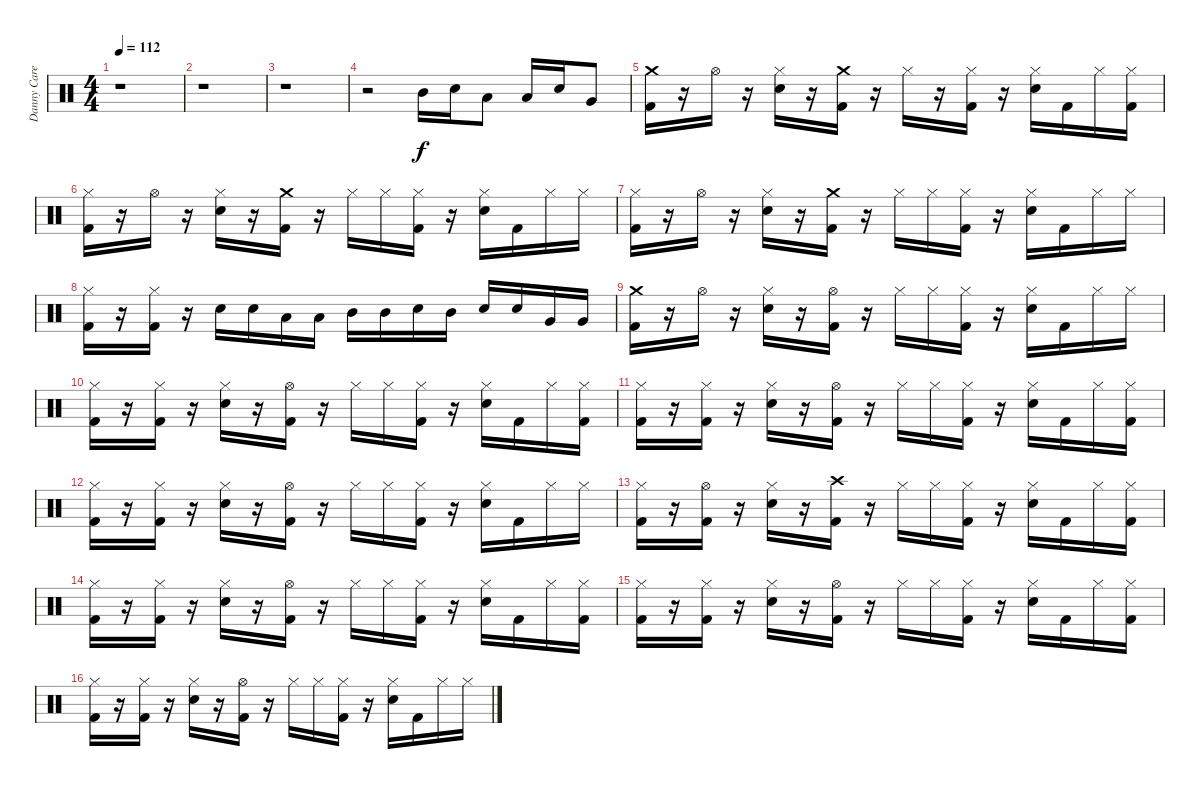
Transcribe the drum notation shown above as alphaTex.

\track ("Danny Carey" "Danny Care") {instrument percussion}
\staff {score}
\articulation defaults
\ts (4 4)
\tempo 112
\clef neutral
\ks c
r.1{dy f} |
r.1 |
r.1 |
r.2 "Mid Tom (hit)".16 "Snare (hit) 2".16 "Low Floor Tom (hit)".8 "Low Floor Tom (hit)".16 "Snare (hit) 2".16 "Very Low Tom (hit)".8 |
("Crash medium (hit)" "Kick (hit) 2").16 r.16 "Hi-Hat (open)".16 r.16 ("Hi-Hat (closed)" "Snare (hit) 2").16 r.16 ("Crash medium (hit)" "Kick (hit) 2").16 r.16 "Hi-Hat (closed)".16 r.16 ("Hi-Hat (closed)" "Kick (hit) 2").16 r.16 ("Hi-Hat (closed)" "Snare (hit) 2").16 "Kick (hit) 2".16 "Hi-Hat (closed)".16 ("Hi-Hat (closed)" "Kick (hit) 2").16 |
("Hi-Hat (closed)" "Kick (hit) 2").16 r.16 "Hi-Hat (open)".16 r.16 ("Hi-Hat (closed)" "Snare (hit) 2").16 r.16 ("Crash medium (hit)" "Kick (hit) 2").16 r.16 "Hi-Hat (closed)".16 "Hi-Hat (closed)".16 ("Hi-Hat (closed)" "Kick (hit) 2").16 r.16 ("Hi-Hat (closed)" "Snare (hit) 2").16 "Kick (hit) 2".16 "Hi-Hat (closed)".16 "Hi-Hat (closed)".16 |
("Hi-Hat (closed)" "Kick (hit) 2").16 r.16 "Hi-Hat (open)".16 r.16 ("Hi-Hat (closed)" "Snare (hit) 2").16 r.16 ("Crash medium (hit)" "Kick (hit) 2").16 r.16 "Hi-Hat (closed)".16 "Hi-Hat (closed)".16 ("Hi-Hat (closed)" "Kick (hit) 2").16 r.16 ("Hi-Hat (closed)" "Snare (hit) 2").16 "Kick (hit) 2".16 "Hi-Hat (closed)".16 "Hi-Hat (closed)".16 |
("Hi-Hat (closed)" "Kick (hit) 2").16 r.16 ("Hi-Hat (closed)" "Kick (hit) 2").16 r.16 "Snare (hit) 2".16 "Snare (hit) 2".16 "Low Tom (hit)".16 "Low Tom (hit)".16 "Mid Tom (hit)".16 "Mid Tom (hit)".16 "Snare (hit) 2".16 "Mid Tom (hit)".16 "Snare (hit) 2".16 "Snare (hit) 2".16 "Very Low Tom (hit)".16 "Very Low Tom (hit)".16 |
("Crash medium (hit)" "Kick (hit) 2").16 r.16 "Hi-Hat (open)".16 r.16 ("Hi-Hat (closed)" "Snare (hit) 2").16 r.16 ("Hi-Hat (open)" "Kick (hit) 2").16 r.16 "Hi-Hat (closed)".16 "Hi-Hat (closed)".16 ("Hi-Hat (closed)" "Kick (hit) 2").16 r.16 ("Hi-Hat (closed)" "Snare (hit) 2").16 "Kick (hit) 2".16 "Hi-Hat (closed)".16 "Hi-Hat (closed)".16 |
("Hi-Hat (closed)" "Kick (hit) 2").16 r.16 ("Hi-Hat (closed)" "Kick (hit) 2").16 r.16 ("Hi-Hat (closed)" "Snare (hit) 2").16 r.16 ("Hi-Hat (open)" "Kick (hit) 2").16 r.16 "Hi-Hat (closed)".16 "Hi-Hat (closed)".16 ("Hi-Hat (closed)" "Kick (hit) 2").16 r.16 ("Hi-Hat (closed)" "Snare (hit) 2").16 "Kick (hit) 2".16 "Hi-Hat (closed)".16 ("Hi-Hat (closed)" "Kick (hit) 2").16 |
("Hi-Hat (closed)" "Kick (hit) 2").16 r.16 ("Hi-Hat (closed)" "Kick (hit) 2").16 r.16 ("Hi-Hat (closed)" "Snare (hit) 2").16 r.16 ("Hi-Hat (open)" "Kick (hit) 2").16 r.16 "Hi-Hat (closed)".16 "Hi-Hat (closed)".16 ("Hi-Hat (closed)" "Kick (hit) 2").16 r.16 ("Hi-Hat (closed)" "Snare (hit) 2").16 "Kick (hit) 2".16 "Hi-Hat (closed)".16 ("Hi-Hat (closed)" "Kick (hit) 2").16 |
("Hi-Hat (closed)" "Kick (hit) 2").16 r.16 ("Hi-Hat (closed)" "Kick (hit) 2").16 r.16 ("Hi-Hat (closed)" "Snare (hit) 2").16 r.16 ("Hi-Hat (open)" "Kick (hit) 2").16 r.16 "Hi-Hat (closed)".16 "Hi-Hat (closed)".16 ("Hi-Hat (closed)" "Kick (hit) 2").16 r.16 ("Hi-Hat (closed)" "Snare (hit) 2").16 "Kick (hit) 2".16 "Hi-Hat (closed)".16 "Hi-Hat (closed)".16 |
("Hi-Hat (closed)" "Kick (hit) 2").16 r.16 ("Hi-Hat (open)" "Kick (hit) 2").16 r.16 ("Hi-Hat (closed)" "Snare (hit) 2").16 r.16 ("Crash high (hit)" "Kick (hit) 2").16 r.16 "Hi-Hat (closed)".16 "Hi-Hat (closed)".16 ("Hi-Hat (closed)" "Kick (hit) 2").16 r.16 ("Hi-Hat (closed)" "Snare (hit) 2").16 "Kick (hit) 2".16 "Hi-Hat (closed)".16 ("Hi-Hat (closed)" "Kick (hit) 2").16 |
("Hi-Hat (closed)" "Kick (hit) 2").16 r.16 ("Hi-Hat (closed)" "Kick (hit) 2").16 r.16 ("Hi-Hat (closed)" "Snare (hit) 2").16 r.16 ("Hi-Hat (open)" "Kick (hit) 2").16 r.16 "Hi-Hat (closed)".16 "Hi-Hat (closed)".16 ("Hi-Hat (closed)" "Kick (hit) 2").16 r.16 ("Hi-Hat (closed)" "Snare (hit) 2").16 "Kick (hit) 2".16 "Hi-Hat (closed)".16 ("Hi-Hat (closed)" "Kick (hit) 2").16 |
("Hi-Hat (closed)" "Kick (hit) 2").16 r.16 ("Hi-Hat (closed)" "Kick (hit) 2").16 r.16 ("Hi-Hat (closed)" "Snare (hit) 2").16 r.16 ("Hi-Hat (open)" "Kick (hit) 2").16 r.16 "Hi-Hat (closed)".16 "Hi-Hat (closed)".16 ("Hi-Hat (closed)" "Kick (hit) 2").16 r.16 ("Hi-Hat (closed)" "Snare (hit) 2").16 "Kick (hit) 2".16 "Hi-Hat (closed)".16 ("Hi-Hat (closed)" "Kick (hit) 2").16 |
("Hi-Hat (closed)" "Kick (hit) 2").16 r.16 ("Hi-Hat (closed)" "Kick (hit) 2").16 r.16 ("Hi-Hat (closed)" "Snare (hit) 2").16 r.16 ("Hi-Hat (open)" "Kick (hit) 2").16 r.16 "Hi-Hat (closed)".16 "Hi-Hat (closed)".16 ("Hi-Hat (closed)" "Kick (hit) 2").16 r.16 ("Hi-Hat (closed)" "Snare (hit) 2").16 "Kick (hit) 2".16 "Hi-Hat (closed)".16 "Hi-Hat (closed)".16
